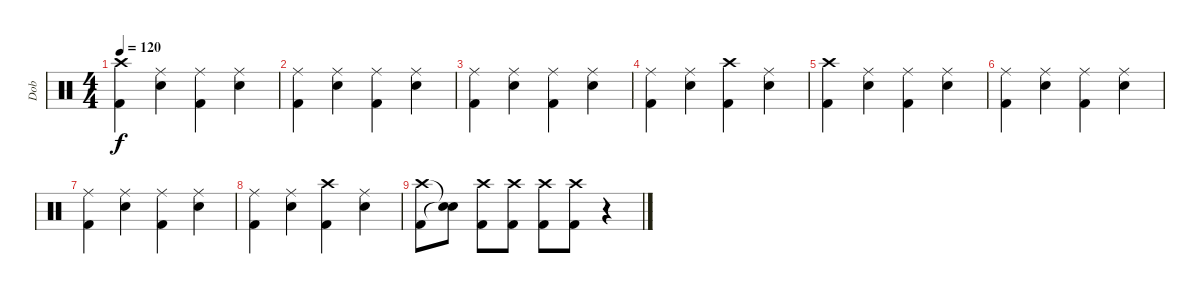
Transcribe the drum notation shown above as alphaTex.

\track ("Dob" "Dob") {instrument percussion}
\staff {score}
\articulation defaults
\ts (4 4)
\tempo 120
\clef neutral
\ks c
("Crash high (hit)" "Kick (hit) 2").4{dy f} ("Ride (middle)" "Electric Snare (hit)").4 ("Ride (middle)" "Kick (hit) 2").4 ("Ride (middle)" "Electric Snare (hit)").4 |
("Ride (middle)" "Kick (hit) 2").4 ("Ride (middle)" "Electric Snare (hit)").4 ("Ride (middle)" "Kick (hit) 2").4 ("Ride (middle)" "Electric Snare (hit)").4 |
("Ride (middle)" "Kick (hit) 2").4 ("Ride (middle)" "Electric Snare (hit)").4 ("Ride (middle)" "Kick (hit) 2").4 ("Ride (middle)" "Electric Snare (hit)").4 |
("Ride (middle)" "Kick (hit) 2").4 ("Ride (middle)" "Electric Snare (hit)").4 ("Crash high (hit)" "Kick (hit) 2").4 ("Ride (middle)" "Electric Snare (hit)").4 |
("Crash high (hit)" "Kick (hit) 2").4 ("Ride (middle)" "Electric Snare (hit)").4 ("Ride (middle)" "Kick (hit) 2").4 ("Ride (middle)" "Electric Snare (hit)").4 |
("Ride (middle)" "Kick (hit) 2").4 ("Ride (middle)" "Electric Snare (hit)").4 ("Ride (middle)" "Kick (hit) 2").4 ("Ride (middle)" "Electric Snare (hit)").4 |
("Ride (middle)" "Kick (hit) 2").4 ("Ride (middle)" "Electric Snare (hit)").4 ("Ride (middle)" "Kick (hit) 2").4 ("Ride (middle)" "Electric Snare (hit)").4 |
("Ride (middle)" "Kick (hit) 2").4 ("Ride (middle)" "Electric Snare (hit)").4 ("Crash high (hit)" "Kick (hit) 2").4 ("Ride (middle)" "Electric Snare (hit)").4 |
("Crash high (hit)" "Kick (hit) 2").8 ("Snare (hit)"{t} "Snare (hit)"{t}).8 ("Crash high (hit)" "Kick (hit) 2").8 ("Crash high (hit)" "Kick (hit) 2").8 ("Crash high (hit)" "Kick (hit) 2").8 ("Crash high (hit)" "Kick (hit) 2").8 r.4
